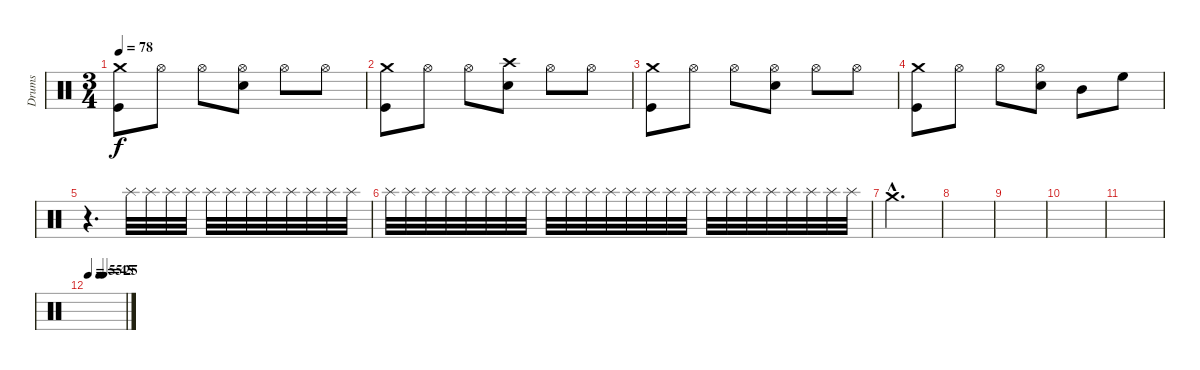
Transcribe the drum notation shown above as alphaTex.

\track ("Drums" "Drums") {instrument percussion}
\staff {score}
\articulation defaults
\ts (3 4)
\tempo 78
\clef neutral
\ks c
("Crash medium (hit)" "Kick (hit)").8{dy f} "Hi-Hat (open)".8 "Hi-Hat (open)".8 ("Hi-Hat (open)" "Snare (hit) 2").8 "Hi-Hat (open)".8 "Hi-Hat (open)".8 |
("Crash medium (hit)" "Kick (hit)").8 "Hi-Hat (open)".8 "Hi-Hat (open)".8 ("Crash high (hit)" "Snare (hit) 2").8 "Hi-Hat (open)".8 "Hi-Hat (open)".8 |
("Crash medium (hit)" "Kick (hit)").8 "Hi-Hat (open)".8 "Hi-Hat (open)".8 ("Hi-Hat (open)" "Snare (hit) 2").8 "Hi-Hat (open)".8 "Hi-Hat (open)".8 |
("Crash medium (hit)" "Kick (hit)").8 "Hi-Hat (open)".8 "Hi-Hat (open)".8 ("Hi-Hat (open)" "Snare (hit) 2").8 "Mid Tom (hit)".8 "High Floor Tom (hit)".8 |
r.4{d} "Splash (hit)".32 "Splash (hit)".32 "Splash (hit)".32 "Splash (hit)".32 "Splash (hit)".32 "Splash (hit)".32 "Splash (hit)".32 "Splash (hit)".32 "Splash (hit)".32 "Splash (hit)".32 "Splash (hit)".32 "Splash (hit)".32 |
"Splash (hit)".32 "Splash (hit)".32 "Splash (hit)".32 "Splash (hit)".32 "Splash (hit)".32 "Splash (hit)".32 "Splash (hit)".32 "Splash (hit)".32 "Splash (hit)".32 "Splash (hit)".32 "Splash (hit)".32 "Splash (hit)".32 "Splash (hit)".32 "Splash (hit)".32 "Splash (hit)".32 "Splash (hit)".32 "Splash (hit)".32 "Splash (hit)".32 "Splash (hit)".32 "Splash (hit)".32 "Splash (hit)".32 "Splash (hit)".32 "Splash (hit)".32 "Splash (hit)".32 |
"Crash medium (hit)"{hac}.2{d} |
|
|
|
|
\tempo 55
\tempo (45 0.3125)
\tempo (25 0.4166666666666667)
